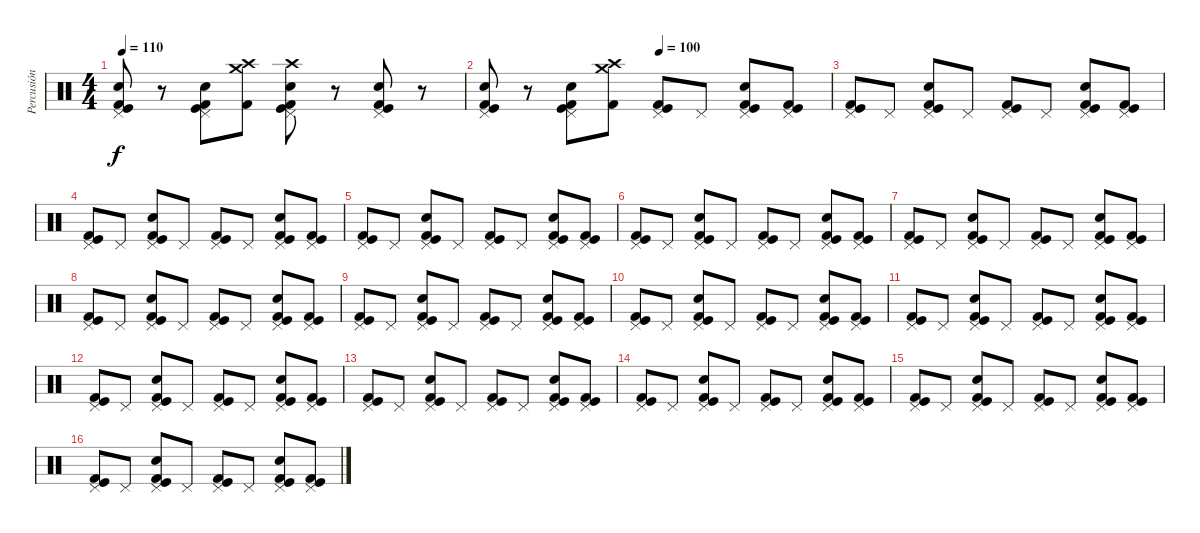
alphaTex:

\track ("Percusión" "Percusión") {instrument percussion}
\staff {score}
\articulation defaults
\ts (4 4)
\tempo 110
\clef neutral
\ks c
("Pedal Hi-Hat (hit)" "Kick (hit)" "Kick (hit) 2" "Snare (hit) 2").8{dy f} r.8 ("Pedal Hi-Hat (hit)" "Kick (hit)" "Kick (hit) 2" "Snare (hit) 2").8 ("Crash high (hit)" "Crash medium (hit)" "Kick (hit) 2").8 ("Crash high (hit)" "Pedal Hi-Hat (hit)" "Kick (hit)" "Kick (hit) 2" "Snare (hit) 2").8 r.8 ("Pedal Hi-Hat (hit)" "Kick (hit)" "Kick (hit) 2" "Snare (hit) 2").8 r.8 |
\tempo (100 0.5)
("Pedal Hi-Hat (hit)" "Kick (hit)" "Kick (hit) 2" "Snare (hit) 2").8 r.8 ("Pedal Hi-Hat (hit)" "Kick (hit)" "Kick (hit) 2" "Snare (hit) 2").8 ("Crash high (hit)" "Crash medium (hit)" "Kick (hit) 2").8 ("Pedal Hi-Hat (hit)" "Kick (hit)" "Kick (hit) 2").8{volume 8} "Pedal Hi-Hat (hit)".8 ("Pedal Hi-Hat (hit)" "Kick (hit)" "Kick (hit) 2" "Snare (hit) 2").8 ("Pedal Hi-Hat (hit)" "Kick (hit)" "Kick (hit) 2").8 |
("Pedal Hi-Hat (hit)" "Kick (hit)" "Kick (hit) 2").8 "Pedal Hi-Hat (hit)".8 ("Pedal Hi-Hat (hit)" "Kick (hit)" "Kick (hit) 2" "Snare (hit) 2").8 "Pedal Hi-Hat (hit)".8 ("Pedal Hi-Hat (hit)" "Kick (hit)" "Kick (hit) 2").8 "Pedal Hi-Hat (hit)".8 ("Pedal Hi-Hat (hit)" "Kick (hit)" "Kick (hit) 2" "Snare (hit) 2").8 ("Pedal Hi-Hat (hit)" "Kick (hit)" "Kick (hit) 2").8 |
("Pedal Hi-Hat (hit)" "Kick (hit)" "Kick (hit) 2").8 "Pedal Hi-Hat (hit)".8 ("Pedal Hi-Hat (hit)" "Kick (hit)" "Kick (hit) 2" "Snare (hit) 2").8 "Pedal Hi-Hat (hit)".8 ("Pedal Hi-Hat (hit)" "Kick (hit)" "Kick (hit) 2").8 "Pedal Hi-Hat (hit)".8 ("Pedal Hi-Hat (hit)" "Kick (hit)" "Kick (hit) 2" "Snare (hit) 2").8 ("Pedal Hi-Hat (hit)" "Kick (hit)" "Kick (hit) 2").8 |
("Pedal Hi-Hat (hit)" "Kick (hit)" "Kick (hit) 2").8 "Pedal Hi-Hat (hit)".8 ("Pedal Hi-Hat (hit)" "Kick (hit)" "Kick (hit) 2" "Snare (hit) 2").8 "Pedal Hi-Hat (hit)".8 ("Pedal Hi-Hat (hit)" "Kick (hit)" "Kick (hit) 2").8 "Pedal Hi-Hat (hit)".8 ("Pedal Hi-Hat (hit)" "Kick (hit)" "Kick (hit) 2" "Snare (hit) 2").8 ("Pedal Hi-Hat (hit)" "Kick (hit)" "Kick (hit) 2").8 |
("Pedal Hi-Hat (hit)" "Kick (hit)" "Kick (hit) 2").8 "Pedal Hi-Hat (hit)".8 ("Pedal Hi-Hat (hit)" "Kick (hit)" "Kick (hit) 2" "Snare (hit) 2").8 "Pedal Hi-Hat (hit)".8 ("Pedal Hi-Hat (hit)" "Kick (hit)" "Kick (hit) 2").8 "Pedal Hi-Hat (hit)".8 ("Pedal Hi-Hat (hit)" "Kick (hit)" "Kick (hit) 2" "Snare (hit) 2").8 ("Pedal Hi-Hat (hit)" "Kick (hit)" "Kick (hit) 2").8 |
("Pedal Hi-Hat (hit)" "Kick (hit)" "Kick (hit) 2").8 "Pedal Hi-Hat (hit)".8 ("Pedal Hi-Hat (hit)" "Kick (hit)" "Kick (hit) 2" "Snare (hit) 2").8 "Pedal Hi-Hat (hit)".8 ("Pedal Hi-Hat (hit)" "Kick (hit)" "Kick (hit) 2").8 "Pedal Hi-Hat (hit)".8 ("Pedal Hi-Hat (hit)" "Kick (hit)" "Kick (hit) 2" "Snare (hit) 2").8 ("Pedal Hi-Hat (hit)" "Kick (hit)" "Kick (hit) 2").8 |
("Pedal Hi-Hat (hit)" "Kick (hit)" "Kick (hit) 2").8 "Pedal Hi-Hat (hit)".8 ("Pedal Hi-Hat (hit)" "Kick (hit)" "Kick (hit) 2" "Snare (hit) 2").8 "Pedal Hi-Hat (hit)".8 ("Pedal Hi-Hat (hit)" "Kick (hit)" "Kick (hit) 2").8 "Pedal Hi-Hat (hit)".8 ("Pedal Hi-Hat (hit)" "Kick (hit)" "Kick (hit) 2" "Snare (hit) 2").8 ("Pedal Hi-Hat (hit)" "Kick (hit)" "Kick (hit) 2").8 |
("Pedal Hi-Hat (hit)" "Kick (hit)" "Kick (hit) 2").8 "Pedal Hi-Hat (hit)".8 ("Pedal Hi-Hat (hit)" "Kick (hit)" "Kick (hit) 2" "Snare (hit) 2").8 "Pedal Hi-Hat (hit)".8 ("Pedal Hi-Hat (hit)" "Kick (hit)" "Kick (hit) 2").8 "Pedal Hi-Hat (hit)".8 ("Pedal Hi-Hat (hit)" "Kick (hit)" "Kick (hit) 2" "Snare (hit) 2").8 ("Pedal Hi-Hat (hit)" "Kick (hit)" "Kick (hit) 2").8 |
("Pedal Hi-Hat (hit)" "Kick (hit)" "Kick (hit) 2").8 "Pedal Hi-Hat (hit)".8 ("Pedal Hi-Hat (hit)" "Kick (hit)" "Kick (hit) 2" "Snare (hit) 2").8 "Pedal Hi-Hat (hit)".8 ("Pedal Hi-Hat (hit)" "Kick (hit)" "Kick (hit) 2").8 "Pedal Hi-Hat (hit)".8 ("Pedal Hi-Hat (hit)" "Kick (hit)" "Kick (hit) 2" "Snare (hit) 2").8 ("Pedal Hi-Hat (hit)" "Kick (hit)" "Kick (hit) 2").8 |
("Pedal Hi-Hat (hit)" "Kick (hit)" "Kick (hit) 2").8 "Pedal Hi-Hat (hit)".8 ("Pedal Hi-Hat (hit)" "Kick (hit)" "Kick (hit) 2" "Snare (hit) 2").8 "Pedal Hi-Hat (hit)".8 ("Pedal Hi-Hat (hit)" "Kick (hit)" "Kick (hit) 2").8 "Pedal Hi-Hat (hit)".8 ("Pedal Hi-Hat (hit)" "Kick (hit)" "Kick (hit) 2" "Snare (hit) 2").8 ("Pedal Hi-Hat (hit)" "Kick (hit)" "Kick (hit) 2").8 |
("Pedal Hi-Hat (hit)" "Kick (hit)" "Kick (hit) 2").8 "Pedal Hi-Hat (hit)".8 ("Pedal Hi-Hat (hit)" "Kick (hit)" "Kick (hit) 2" "Snare (hit) 2").8 "Pedal Hi-Hat (hit)".8 ("Pedal Hi-Hat (hit)" "Kick (hit)" "Kick (hit) 2").8 "Pedal Hi-Hat (hit)".8 ("Pedal Hi-Hat (hit)" "Kick (hit)" "Kick (hit) 2" "Snare (hit) 2").8 ("Pedal Hi-Hat (hit)" "Kick (hit)" "Kick (hit) 2").8 |
("Pedal Hi-Hat (hit)" "Kick (hit)" "Kick (hit) 2").8 "Pedal Hi-Hat (hit)".8 ("Pedal Hi-Hat (hit)" "Kick (hit)" "Kick (hit) 2" "Snare (hit) 2").8 "Pedal Hi-Hat (hit)".8 ("Pedal Hi-Hat (hit)" "Kick (hit)" "Kick (hit) 2").8 "Pedal Hi-Hat (hit)".8 ("Pedal Hi-Hat (hit)" "Kick (hit)" "Kick (hit) 2" "Snare (hit) 2").8 ("Pedal Hi-Hat (hit)" "Kick (hit)" "Kick (hit) 2").8 |
("Pedal Hi-Hat (hit)" "Kick (hit)" "Kick (hit) 2").8 "Pedal Hi-Hat (hit)".8 ("Pedal Hi-Hat (hit)" "Kick (hit)" "Kick (hit) 2" "Snare (hit) 2").8 "Pedal Hi-Hat (hit)".8 ("Pedal Hi-Hat (hit)" "Kick (hit)" "Kick (hit) 2").8 "Pedal Hi-Hat (hit)".8 ("Pedal Hi-Hat (hit)" "Kick (hit)" "Kick (hit) 2" "Snare (hit) 2").8 ("Pedal Hi-Hat (hit)" "Kick (hit)" "Kick (hit) 2").8 |
("Pedal Hi-Hat (hit)" "Kick (hit)" "Kick (hit) 2").8 "Pedal Hi-Hat (hit)".8 ("Pedal Hi-Hat (hit)" "Kick (hit)" "Kick (hit) 2" "Snare (hit) 2").8 "Pedal Hi-Hat (hit)".8 ("Pedal Hi-Hat (hit)" "Kick (hit)" "Kick (hit) 2").8 "Pedal Hi-Hat (hit)".8 ("Pedal Hi-Hat (hit)" "Kick (hit)" "Kick (hit) 2" "Snare (hit) 2").8 ("Pedal Hi-Hat (hit)" "Kick (hit)" "Kick (hit) 2").8 |
("Pedal Hi-Hat (hit)" "Kick (hit)" "Kick (hit) 2").8 "Pedal Hi-Hat (hit)".8 ("Pedal Hi-Hat (hit)" "Kick (hit)" "Kick (hit) 2" "Snare (hit) 2").8 "Pedal Hi-Hat (hit)".8 ("Pedal Hi-Hat (hit)" "Kick (hit)" "Kick (hit) 2").8 "Pedal Hi-Hat (hit)".8 ("Pedal Hi-Hat (hit)" "Kick (hit)" "Kick (hit) 2" "Snare (hit) 2").8 ("Pedal Hi-Hat (hit)" "Kick (hit)" "Kick (hit) 2").8
